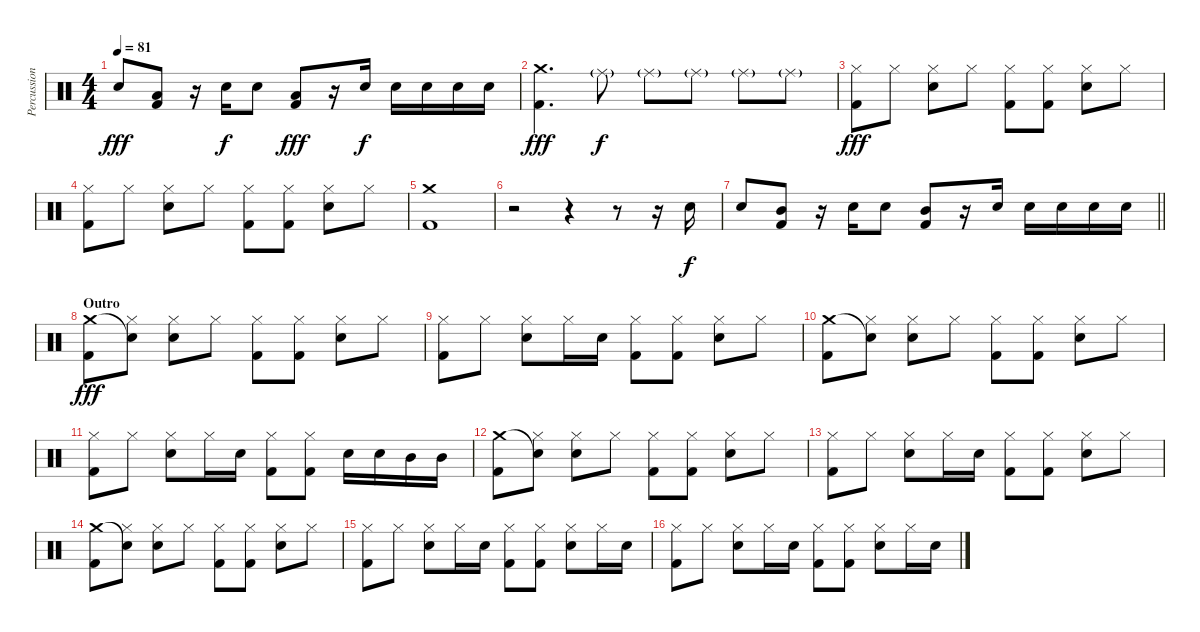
\track ("Percussion" "Percussion") {instrument percussion}
\staff {score}
\articulation defaults
\ts (4 4)
\tempo 81
\clef neutral
\ks c "Electric Snare (hit)".8{dy fff}
("Low Floor Tom (hit)" "Kick (hit) 2").8 r.16 "Electric Snare (hit)".16{dy f} "Electric Snare (hit)".8 ("Low Floor Tom (hit)" "Kick (hit) 2").8{dy fff} r.16 "Electric Snare (hit)".16{dy f} "Electric Snare (hit)".16 "Electric Snare (hit)".16 "Electric Snare (hit)".16 "Electric Snare (hit)".16 |
("Crash medium (hit)" "Kick (hit) 2").4{d dy fff} "Ride (middle)"{g}.8{dy f} "Ride (middle)"{g}.8 "Ride (middle)"{g}.8 "Ride (middle)"{g}.8 "Ride (middle)"{g}.8 |
("Hi-Hat (closed)" "Kick (hit) 2").8{dy fff} "Hi-Hat (closed)".8 ("Hi-Hat (closed)" "Electric Snare (hit)").8 "Hi-Hat (closed)".8 ("Hi-Hat (closed)" "Kick (hit) 2").8 ("Hi-Hat (closed)" "Kick (hit) 2").8 ("Hi-Hat (closed)" "Electric Snare (hit)").8 "Hi-Hat (closed)".8 |
("Hi-Hat (closed)" "Kick (hit) 2").8 "Hi-Hat (closed)".8 ("Hi-Hat (closed)" "Electric Snare (hit)").8 "Hi-Hat (closed)".8 ("Hi-Hat (closed)" "Kick (hit) 2").8 ("Hi-Hat (closed)" "Kick (hit) 2").8 ("Hi-Hat (closed)" "Electric Snare (hit)").8 "Hi-Hat (closed)".8 |
("Crash medium (hit)" "Kick (hit) 2").1 |
r.2 r.4 r.8 r.16 "Electric Snare (hit)".16{dy f} |
\barLineRight lightlight "Electric Snare (hit)".8
("Mid Tom (hit)" "Kick (hit) 2").8 r.16 "Electric Snare (hit)".16 "Electric Snare (hit)".8 ("Mid Tom (hit)" "Kick (hit) 2").8 r.16 "Electric Snare (hit)".16 "Electric Snare (hit)".16 "Electric Snare (hit)".16 "Electric Snare (hit)".16 "Electric Snare (hit)".16 |
\section ("" "Outro")
("Crash medium (hit)" "Kick (hit) 2").8{dy fff} ("Snare (hit)"{t} "Hi-Hat (closed)").8 ("Hi-Hat (closed)" "Electric Snare (hit)").8 "Hi-Hat (closed)".8 ("Hi-Hat (closed)" "Kick (hit) 2").8 ("Hi-Hat (closed)" "Kick (hit) 2").8 ("Hi-Hat (closed)" "Electric Snare (hit)").8 "Hi-Hat (closed)".8 |
("Hi-Hat (closed)" "Kick (hit) 2").8 "Hi-Hat (closed)".8 ("Hi-Hat (closed)" "Electric Snare (hit)").8 "Hi-Hat (closed)".16 "Electric Snare (hit)".16 ("Hi-Hat (closed)" "Kick (hit) 2").8 ("Hi-Hat (closed)" "Kick (hit) 2").8 ("Hi-Hat (closed)" "Electric Snare (hit)").8 "Hi-Hat (closed)".8 |
("Crash medium (hit)" "Kick (hit) 2").8 ("Snare (hit)"{t} "Hi-Hat (closed)").8 ("Hi-Hat (closed)" "Electric Snare (hit)").8 "Hi-Hat (closed)".8 ("Hi-Hat (closed)" "Kick (hit) 2").8 ("Hi-Hat (closed)" "Kick (hit) 2").8 ("Hi-Hat (closed)" "Electric Snare (hit)").8 "Hi-Hat (closed)".8 |
("Hi-Hat (closed)" "Kick (hit) 2").8 "Hi-Hat (closed)".8 ("Hi-Hat (closed)" "Electric Snare (hit)").8 "Hi-Hat (closed)".16 "Electric Snare (hit)".16 ("Hi-Hat (closed)" "Kick (hit) 2").8 ("Hi-Hat (closed)" "Kick (hit) 2").8 "Electric Snare (hit)".16 "Electric Snare (hit)".16 "Mid Tom (hit)".16 "Mid Tom (hit)".16 |
("Crash medium (hit)" "Kick (hit) 2").8 ("Snare (hit)"{t} "Hi-Hat (closed)").8 ("Hi-Hat (closed)" "Electric Snare (hit)").8 "Hi-Hat (closed)".8 ("Hi-Hat (closed)" "Kick (hit) 2").8 ("Hi-Hat (closed)" "Kick (hit) 2").8 ("Hi-Hat (closed)" "Electric Snare (hit)").8 "Hi-Hat (closed)".8 |
("Hi-Hat (closed)" "Kick (hit) 2").8 "Hi-Hat (closed)".8 ("Hi-Hat (closed)" "Electric Snare (hit)").8 "Hi-Hat (closed)".16 "Electric Snare (hit)".16 ("Hi-Hat (closed)" "Kick (hit) 2").8 ("Hi-Hat (closed)" "Kick (hit) 2").8 ("Hi-Hat (closed)" "Electric Snare (hit)").8 "Hi-Hat (closed)".8 |
("Crash medium (hit)" "Kick (hit) 2").8 ("Snare (hit)"{t} "Hi-Hat (closed)").8 ("Hi-Hat (closed)" "Electric Snare (hit)").8 "Hi-Hat (closed)".8 ("Hi-Hat (closed)" "Kick (hit) 2").8 ("Hi-Hat (closed)" "Kick (hit) 2").8 ("Hi-Hat (closed)" "Electric Snare (hit)").8 "Hi-Hat (closed)".8 |
("Hi-Hat (closed)" "Kick (hit) 2").8 "Hi-Hat (closed)".8 ("Hi-Hat (closed)" "Electric Snare (hit)").8 "Hi-Hat (closed)".16 "Electric Snare (hit)".16 ("Hi-Hat (closed)" "Kick (hit) 2").8 ("Hi-Hat (closed)" "Kick (hit) 2").8 ("Hi-Hat (closed)" "Electric Snare (hit)").8 "Hi-Hat (closed)".16 "Electric Snare (hit)".16 |
("Hi-Hat (closed)" "Kick (hit) 2").8 "Hi-Hat (closed)".8 ("Hi-Hat (closed)" "Electric Snare (hit)").8 "Hi-Hat (closed)".16 "Electric Snare (hit)".16 ("Hi-Hat (closed)" "Kick (hit) 2").8 ("Hi-Hat (closed)" "Kick (hit) 2").8 ("Hi-Hat (closed)" "Electric Snare (hit)").8 "Hi-Hat (closed)".16 "Electric Snare (hit)".16
